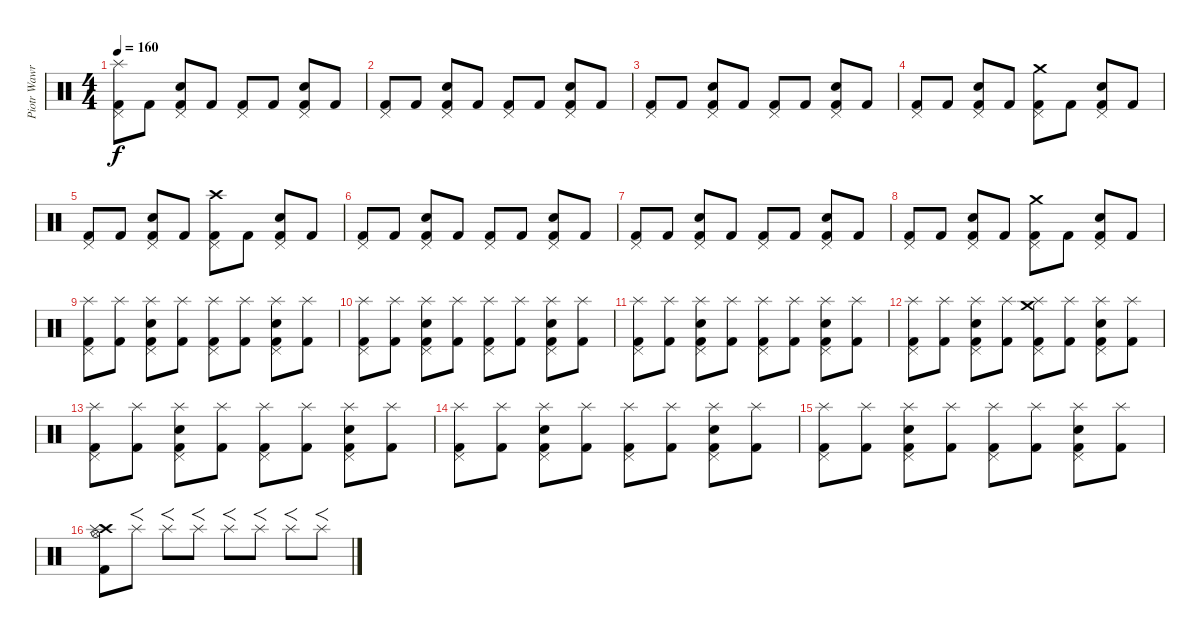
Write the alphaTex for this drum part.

\track ("Piotr Wawrzeniuk" "Piotr Wawr") {instrument percussion}
\staff {score}
\articulation defaults
\ts (4 4)
\tempo 160
\clef neutral
\ks c
("Splash (hit)" "Pedal Hi-Hat (hit)" "Kick (hit) 2").8{dy f} "Kick (hit) 2".8 ("Snare (hit) 2" "Pedal Hi-Hat (hit)" "Kick (hit) 2").8 "Kick (hit) 2".8 ("Pedal Hi-Hat (hit)" "Kick (hit) 2").8 "Kick (hit) 2".8 ("Snare (hit) 2" "Pedal Hi-Hat (hit)" "Kick (hit) 2").8 "Kick (hit) 2".8 |
("Pedal Hi-Hat (hit)" "Kick (hit) 2").8 "Kick (hit) 2".8 ("Snare (hit) 2" "Pedal Hi-Hat (hit)" "Kick (hit) 2").8 "Kick (hit) 2".8 ("Pedal Hi-Hat (hit)" "Kick (hit) 2").8 "Kick (hit) 2".8 ("Snare (hit) 2" "Pedal Hi-Hat (hit)" "Kick (hit) 2").8 "Kick (hit) 2".8 |
("Pedal Hi-Hat (hit)" "Kick (hit) 2").8 "Kick (hit) 2".8 ("Snare (hit) 2" "Pedal Hi-Hat (hit)" "Kick (hit) 2").8 "Kick (hit) 2".8 ("Pedal Hi-Hat (hit)" "Kick (hit) 2").8 "Kick (hit) 2".8 ("Snare (hit) 2" "Pedal Hi-Hat (hit)" "Kick (hit) 2").8 "Kick (hit) 2".8 |
("Pedal Hi-Hat (hit)" "Kick (hit) 2").8 "Kick (hit) 2".8 ("Snare (hit) 2" "Pedal Hi-Hat (hit)" "Kick (hit) 2").8 "Kick (hit) 2".8 ("Crash medium (hit)" "Pedal Hi-Hat (hit)" "Kick (hit) 2").8 "Kick (hit) 2".8 ("Snare (hit) 2" "Pedal Hi-Hat (hit)" "Kick (hit) 2").8 "Kick (hit) 2".8 |
("Pedal Hi-Hat (hit)" "Kick (hit) 2").8 "Kick (hit) 2".8 ("Snare (hit) 2" "Pedal Hi-Hat (hit)" "Kick (hit) 2").8 "Kick (hit) 2".8 ("Crash high (hit)" "Pedal Hi-Hat (hit)" "Kick (hit) 2").8 "Kick (hit) 2".8 ("Snare (hit) 2" "Pedal Hi-Hat (hit)" "Kick (hit) 2").8 "Kick (hit) 2".8 |
("Pedal Hi-Hat (hit)" "Kick (hit) 2").8 "Kick (hit) 2".8 ("Snare (hit) 2" "Pedal Hi-Hat (hit)" "Kick (hit) 2").8 "Kick (hit) 2".8 ("Pedal Hi-Hat (hit)" "Kick (hit) 2").8 "Kick (hit) 2".8 ("Snare (hit) 2" "Pedal Hi-Hat (hit)" "Kick (hit) 2").8 "Kick (hit) 2".8 |
("Pedal Hi-Hat (hit)" "Kick (hit) 2").8 "Kick (hit) 2".8 ("Snare (hit) 2" "Pedal Hi-Hat (hit)" "Kick (hit) 2").8 "Kick (hit) 2".8 ("Pedal Hi-Hat (hit)" "Kick (hit) 2").8 "Kick (hit) 2".8 ("Snare (hit) 2" "Pedal Hi-Hat (hit)" "Kick (hit) 2").8 "Kick (hit) 2".8 |
("Pedal Hi-Hat (hit)" "Kick (hit) 2").8 "Kick (hit) 2".8 ("Snare (hit) 2" "Pedal Hi-Hat (hit)" "Kick (hit) 2").8 "Kick (hit) 2".8 ("Crash medium (hit)" "Pedal Hi-Hat (hit)" "Kick (hit) 2").8 "Kick (hit) 2".8 ("Snare (hit) 2" "Pedal Hi-Hat (hit)" "Kick (hit) 2").8 "Kick (hit) 2".8 |
("Splash (hit)" "Pedal Hi-Hat (hit)" "Kick (hit) 2").8 ("Splash (hit)" "Kick (hit) 2").8 ("Snare (hit) 2" "Pedal Hi-Hat (hit)" "Splash (hit)" "Kick (hit) 2").8 ("Splash (hit)" "Kick (hit) 2").8 ("Pedal Hi-Hat (hit)" "Splash (hit)" "Kick (hit) 2").8 ("Splash (hit)" "Kick (hit) 2").8 ("Snare (hit) 2" "Pedal Hi-Hat (hit)" "Splash (hit)" "Kick (hit) 2").8 ("Splash (hit)" "Kick (hit) 2").8 |
("Pedal Hi-Hat (hit)" "Splash (hit)" "Kick (hit) 2").8 ("Splash (hit)" "Kick (hit) 2").8 ("Snare (hit) 2" "Pedal Hi-Hat (hit)" "Splash (hit)" "Kick (hit) 2").8 ("Splash (hit)" "Kick (hit) 2").8 ("Pedal Hi-Hat (hit)" "Splash (hit)" "Kick (hit) 2").8 ("Splash (hit)" "Kick (hit) 2").8 ("Snare (hit) 2" "Pedal Hi-Hat (hit)" "Splash (hit)" "Kick (hit) 2").8 ("Splash (hit)" "Kick (hit) 2").8 |
("Pedal Hi-Hat (hit)" "Splash (hit)" "Kick (hit) 2").8 ("Splash (hit)" "Kick (hit) 2").8 ("Snare (hit) 2" "Pedal Hi-Hat (hit)" "Splash (hit)" "Kick (hit) 2").8 ("Splash (hit)" "Kick (hit) 2").8 ("Pedal Hi-Hat (hit)" "Splash (hit)" "Kick (hit) 2").8 ("Splash (hit)" "Kick (hit) 2").8 ("Snare (hit) 2" "Pedal Hi-Hat (hit)" "Splash (hit)" "Kick (hit) 2").8 ("Splash (hit)" "Kick (hit) 2").8 |
("Pedal Hi-Hat (hit)" "Splash (hit)" "Kick (hit) 2").8 ("Splash (hit)" "Kick (hit) 2").8 ("Snare (hit) 2" "Pedal Hi-Hat (hit)" "Splash (hit)" "Kick (hit) 2").8 ("Splash (hit)" "Kick (hit) 2").8 ("Crash medium (hit)" "Pedal Hi-Hat (hit)" "Splash (hit)" "Kick (hit) 2").8 ("Splash (hit)" "Kick (hit) 2").8 ("Snare (hit) 2" "Pedal Hi-Hat (hit)" "Splash (hit)" "Kick (hit) 2").8 ("Splash (hit)" "Kick (hit) 2").8 |
("Pedal Hi-Hat (hit)" "Splash (hit)" "Kick (hit) 2").8 ("Splash (hit)" "Kick (hit) 2").8 ("Snare (hit) 2" "Pedal Hi-Hat (hit)" "Splash (hit)" "Kick (hit) 2").8 ("Splash (hit)" "Kick (hit) 2").8 ("Pedal Hi-Hat (hit)" "Splash (hit)" "Kick (hit) 2").8 ("Splash (hit)" "Kick (hit) 2").8 ("Snare (hit) 2" "Pedal Hi-Hat (hit)" "Splash (hit)" "Kick (hit) 2").8 ("Splash (hit)" "Kick (hit) 2").8 |
("Pedal Hi-Hat (hit)" "Splash (hit)" "Kick (hit) 2").8 ("Splash (hit)" "Kick (hit) 2").8 ("Snare (hit) 2" "Pedal Hi-Hat (hit)" "Splash (hit)" "Kick (hit) 2").8 ("Splash (hit)" "Kick (hit) 2").8 ("Pedal Hi-Hat (hit)" "Splash (hit)" "Kick (hit) 2").8 ("Splash (hit)" "Kick (hit) 2").8 ("Snare (hit) 2" "Pedal Hi-Hat (hit)" "Splash (hit)" "Kick (hit) 2").8 ("Splash (hit)" "Kick (hit) 2").8 |
("Pedal Hi-Hat (hit)" "Splash (hit)" "Kick (hit) 2").8 ("Splash (hit)" "Kick (hit) 2").8 ("Snare (hit) 2" "Pedal Hi-Hat (hit)" "Splash (hit)" "Kick (hit) 2").8 ("Splash (hit)" "Kick (hit) 2").8 ("Pedal Hi-Hat (hit)" "Splash (hit)" "Kick (hit) 2").8 ("Splash (hit)" "Kick (hit) 2").8 ("Snare (hit) 2" "Pedal Hi-Hat (hit)" "Splash (hit)" "Kick (hit) 2").8 ("Splash (hit)" "Kick (hit) 2").8 |
("Crash high (hit)" "Splash (hit)" "Hi-Hat (open)" "Kick (hit) 2").8 "Splash (hit)".8{f} "Splash (hit)".8{f} "Splash (hit)".8{f} "Splash (hit)".8{f} "Splash (hit)".8{f} "Splash (hit)".8{f} "Splash (hit)".8{f}
